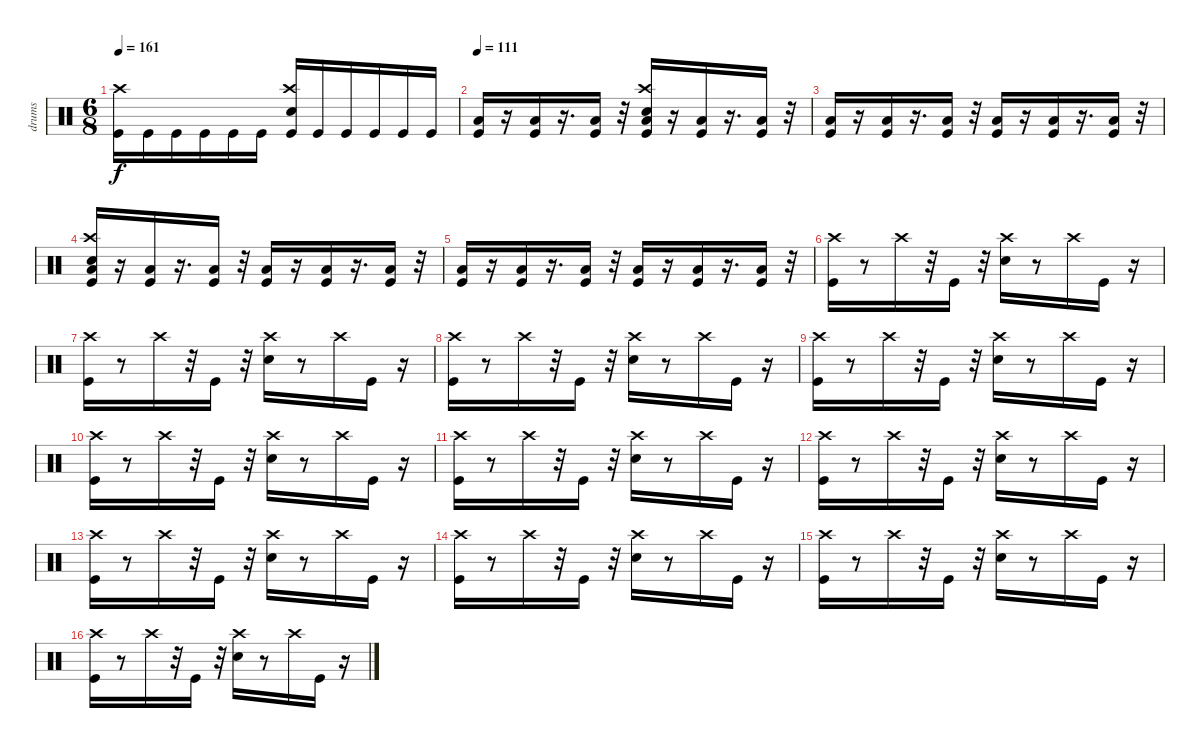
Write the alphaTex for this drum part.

\track ("drums" "drums") {instrument percussion}
\staff {score}
\articulation defaults
\ts (6 8)
\tempo 161
\clef neutral
\ks c
("Kick (hit)" "Crash high (hit)").16{dy f} "Kick (hit)".16 "Kick (hit)".16 "Kick (hit)".16 "Kick (hit)".16 "Kick (hit)".16 ("Kick (hit)" "Electric Snare (hit)" "Crash high (hit)").16 "Kick (hit)".16 "Kick (hit)".16 "Kick (hit)".16 "Kick (hit)".16 "Kick (hit)".16 |
\tempo 111
("Kick (hit)" "Low Tom (hit)").16 r.16 ("Kick (hit)" "Low Tom (hit)").16 r.16{d} ("Kick (hit)" "Low Tom (hit)").16 r.32 ("Kick (hit)" "Electric Snare (hit)" "Low Tom (hit)" "Crash high (hit)").16 r.16 ("Kick (hit)" "Low Tom (hit)").16 r.16{d} ("Kick (hit)" "Low Tom (hit)").16 r.32 |
("Kick (hit)" "Low Tom (hit)").16 r.16 ("Kick (hit)" "Low Tom (hit)").16 r.16{d} ("Kick (hit)" "Low Tom (hit)").16 r.32 ("Kick (hit)" "Low Tom (hit)").16 r.16 ("Kick (hit)" "Low Tom (hit)").16 r.16{d} ("Kick (hit)" "Low Tom (hit)").16 r.32 |
("Kick (hit)" "Electric Snare (hit)" "Low Tom (hit)" "Crash high (hit)").16 r.16 ("Kick (hit)" "Low Tom (hit)").16 r.16{d} ("Kick (hit)" "Low Tom (hit)").16 r.32 ("Kick (hit)" "Low Tom (hit)").16 r.16 ("Kick (hit)" "Low Tom (hit)").16 r.16{d} ("Kick (hit)" "Low Tom (hit)").16 r.32 |
("Kick (hit)" "Low Tom (hit)").16 r.16 ("Kick (hit)" "Low Tom (hit)").16 r.16{d} ("Kick (hit)" "Low Tom (hit)").16 r.32 ("Kick (hit)" "Low Tom (hit)").16 r.16 ("Kick (hit)" "Low Tom (hit)").16 r.16{d} ("Kick (hit)" "Low Tom (hit)").16 r.32 |
("Kick (hit)" "Crash high (hit)").16 r.8 "Crash high (hit)".16 r.32 "Kick (hit)".16 r.32 ("Electric Snare (hit)" "Crash high (hit)").16 r.8 "Crash high (hit)".16 "Kick (hit)".16 r.16 |
("Kick (hit)" "Crash high (hit)").16 r.8 "Crash high (hit)".16 r.32 "Kick (hit)".16 r.32 ("Electric Snare (hit)" "Crash high (hit)").16 r.8 "Crash high (hit)".16 "Kick (hit)".16 r.16 |
("Kick (hit)" "Crash high (hit)").16 r.8 "Crash high (hit)".16 r.32 "Kick (hit)".16 r.32 ("Electric Snare (hit)" "Crash high (hit)").16 r.8 "Crash high (hit)".16 "Kick (hit)".16 r.16 |
("Kick (hit)" "Crash high (hit)").16 r.8 "Crash high (hit)".16 r.32 "Kick (hit)".16 r.32 ("Electric Snare (hit)" "Crash high (hit)").16 r.8 "Crash high (hit)".16 "Kick (hit)".16 r.16 |
("Kick (hit)" "Crash high (hit)").16 r.8 "Crash high (hit)".16 r.32 "Kick (hit)".16 r.32 ("Electric Snare (hit)" "Crash high (hit)").16 r.8 "Crash high (hit)".16 "Kick (hit)".16 r.16 |
("Kick (hit)" "Crash high (hit)").16 r.8 "Crash high (hit)".16 r.32 "Kick (hit)".16 r.32 ("Electric Snare (hit)" "Crash high (hit)").16 r.8 "Crash high (hit)".16 "Kick (hit)".16 r.16 |
("Kick (hit)" "Crash high (hit)").16 r.8 "Crash high (hit)".16 r.32 "Kick (hit)".16 r.32 ("Electric Snare (hit)" "Crash high (hit)").16 r.8 "Crash high (hit)".16 "Kick (hit)".16 r.16 |
("Kick (hit)" "Crash high (hit)").16 r.8 "Crash high (hit)".16 r.32 "Kick (hit)".16 r.32 ("Electric Snare (hit)" "Crash high (hit)").16 r.8 "Crash high (hit)".16 "Kick (hit)".16 r.16 |
("Kick (hit)" "Crash high (hit)").16 r.8 "Crash high (hit)".16 r.32 "Kick (hit)".16 r.32 ("Electric Snare (hit)" "Crash high (hit)").16 r.8 "Crash high (hit)".16 "Kick (hit)".16 r.16 |
("Kick (hit)" "Crash high (hit)").16 r.8 "Crash high (hit)".16 r.32 "Kick (hit)".16 r.32 ("Electric Snare (hit)" "Crash high (hit)").16 r.8 "Crash high (hit)".16 "Kick (hit)".16 r.16 |
("Kick (hit)" "Crash high (hit)").16 r.8 "Crash high (hit)".16 r.32 "Kick (hit)".16 r.32 ("Electric Snare (hit)" "Crash high (hit)").16 r.8 "Crash high (hit)".16 "Kick (hit)".16 r.16
